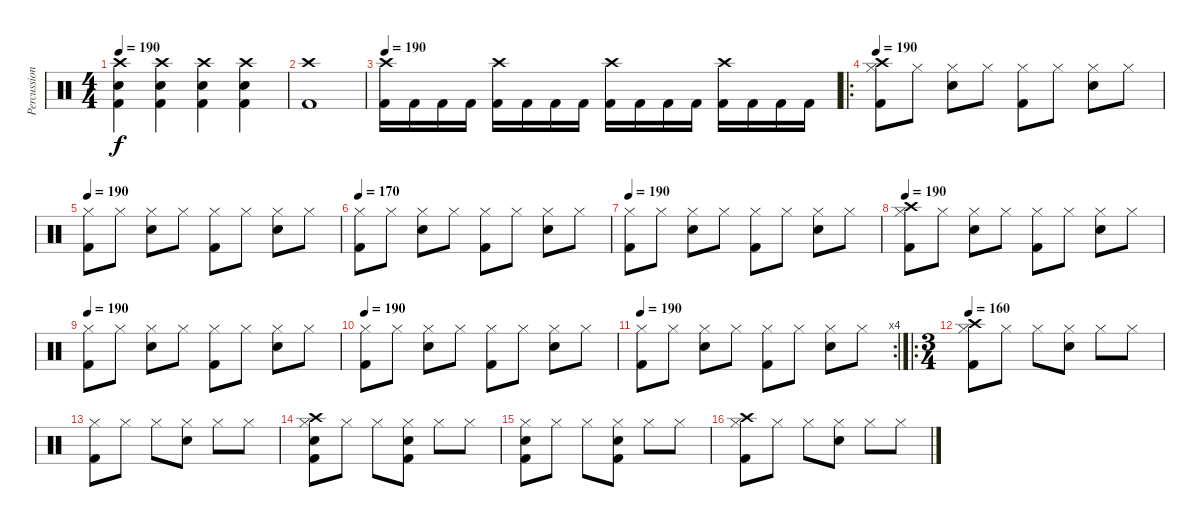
\track ("Percussion" "Percussion") {instrument percussion}
\staff {score}
\articulation defaults
\ts (4 4)
\tempo 190
\clef neutral
\ks c
("Kick (hit) 2" "Snare (hit) 2" "Crash high (hit)").4{dy f} ("Kick (hit) 2" "Snare (hit) 2" "Crash high (hit)").4 ("Kick (hit) 2" "Snare (hit) 2" "Crash high (hit)").4 ("Kick (hit) 2" "Snare (hit) 2" "Crash high (hit)").4 |
("Kick (hit) 2" "Crash high (hit)").1 |
\tempo 190
("Kick (hit) 2" "Crash high (hit)").16 "Kick (hit) 2".16 "Kick (hit) 2".16 "Kick (hit) 2".16 ("Kick (hit) 2" "Crash high (hit)").16 "Kick (hit) 2".16 "Kick (hit) 2".16 "Kick (hit) 2".16 ("Kick (hit) 2" "Crash high (hit)").16 "Kick (hit) 2".16 "Kick (hit) 2".16 "Kick (hit) 2".16 ("Kick (hit) 2" "Crash high (hit)").16 "Kick (hit) 2".16 "Kick (hit) 2".16 "Kick (hit) 2".16 |
\ro
\tempo 190
("Hi-Hat (closed)" "Kick (hit) 2" "Crash high (hit)").8 "Hi-Hat (closed)".8 ("Hi-Hat (closed)" "Snare (hit) 2").8 "Hi-Hat (closed)".8 ("Hi-Hat (closed)" "Kick (hit) 2").8 "Hi-Hat (closed)".8 ("Hi-Hat (closed)" "Snare (hit) 2").8 "Hi-Hat (closed)".8 |
\tempo 190
("Hi-Hat (closed)" "Kick (hit) 2").8 "Hi-Hat (closed)".8 ("Hi-Hat (closed)" "Snare (hit) 2").8 "Hi-Hat (closed)".8 ("Hi-Hat (closed)" "Kick (hit) 2").8 "Hi-Hat (closed)".8 ("Hi-Hat (closed)" "Snare (hit) 2").8 "Hi-Hat (closed)".8 |
\tempo 170
("Hi-Hat (closed)" "Kick (hit) 2").8 "Hi-Hat (closed)".8 ("Hi-Hat (closed)" "Snare (hit) 2").8 "Hi-Hat (closed)".8 ("Hi-Hat (closed)" "Kick (hit) 2").8 "Hi-Hat (closed)".8 ("Hi-Hat (closed)" "Snare (hit) 2").8 "Hi-Hat (closed)".8 |
\tempo 190
("Hi-Hat (closed)" "Kick (hit) 2").8 "Hi-Hat (closed)".8 ("Hi-Hat (closed)" "Snare (hit) 2").8 "Hi-Hat (closed)".8 ("Hi-Hat (closed)" "Kick (hit) 2").8 "Hi-Hat (closed)".8 ("Hi-Hat (closed)" "Snare (hit) 2").8 "Hi-Hat (closed)".8 |
\tempo 190
("Hi-Hat (closed)" "Kick (hit) 2" "Crash high (hit)").8 "Hi-Hat (closed)".8 ("Hi-Hat (closed)" "Snare (hit) 2").8 "Hi-Hat (closed)".8 ("Hi-Hat (closed)" "Kick (hit) 2").8 "Hi-Hat (closed)".8 ("Hi-Hat (closed)" "Snare (hit) 2").8 "Hi-Hat (closed)".8 |
\tempo 190
("Hi-Hat (closed)" "Kick (hit) 2").8 "Hi-Hat (closed)".8 ("Hi-Hat (closed)" "Snare (hit) 2").8 "Hi-Hat (closed)".8 ("Hi-Hat (closed)" "Kick (hit) 2").8 "Hi-Hat (closed)".8 ("Hi-Hat (closed)" "Snare (hit) 2").8 "Hi-Hat (closed)".8 |
\tempo 190
("Hi-Hat (closed)" "Kick (hit) 2").8 "Hi-Hat (closed)".8 ("Hi-Hat (closed)" "Snare (hit) 2").8 "Hi-Hat (closed)".8 ("Hi-Hat (closed)" "Kick (hit) 2").8 "Hi-Hat (closed)".8 ("Hi-Hat (closed)" "Snare (hit) 2").8 "Hi-Hat (closed)".8 |
\rc 4
\tempo 190
("Hi-Hat (closed)" "Kick (hit) 2").8 "Hi-Hat (closed)".8 ("Hi-Hat (closed)" "Snare (hit) 2").8 "Hi-Hat (closed)".8 ("Hi-Hat (closed)" "Kick (hit) 2").8 "Hi-Hat (closed)".8 ("Hi-Hat (closed)" "Snare (hit) 2").8 "Hi-Hat (closed)".8 |
\ro
\ts (3 4)
\tempo 160
("Hi-Hat (closed)" "Kick (hit) 2" "Crash high (hit)").8 "Hi-Hat (closed)".8 "Hi-Hat (closed)".8 ("Hi-Hat (closed)" "Snare (hit) 2").8 "Hi-Hat (closed)".8 "Hi-Hat (closed)".8 |
("Hi-Hat (closed)" "Kick (hit) 2").8 "Hi-Hat (closed)".8 "Hi-Hat (closed)".8 ("Hi-Hat (closed)" "Snare (hit) 2").8 "Hi-Hat (closed)".8 "Hi-Hat (closed)".8 |
("Hi-Hat (closed)" "Kick (hit) 2" "Snare (hit) 2" "Crash high (hit)").8 "Hi-Hat (closed)".8 "Hi-Hat (closed)".8 ("Hi-Hat (closed)" "Kick (hit) 2" "Snare (hit) 2").8 "Hi-Hat (closed)".8 "Hi-Hat (closed)".8 |
("Hi-Hat (closed)" "Kick (hit) 2" "Snare (hit) 2").8 "Hi-Hat (closed)".8 "Hi-Hat (closed)".8 ("Hi-Hat (closed)" "Kick (hit) 2" "Snare (hit) 2").8 "Hi-Hat (closed)".8 "Hi-Hat (closed)".8 |
("Hi-Hat (closed)" "Kick (hit) 2" "Crash high (hit)").8 "Hi-Hat (closed)".8 "Hi-Hat (closed)".8 ("Hi-Hat (closed)" "Snare (hit) 2").8 "Hi-Hat (closed)".8 "Hi-Hat (closed)".8
